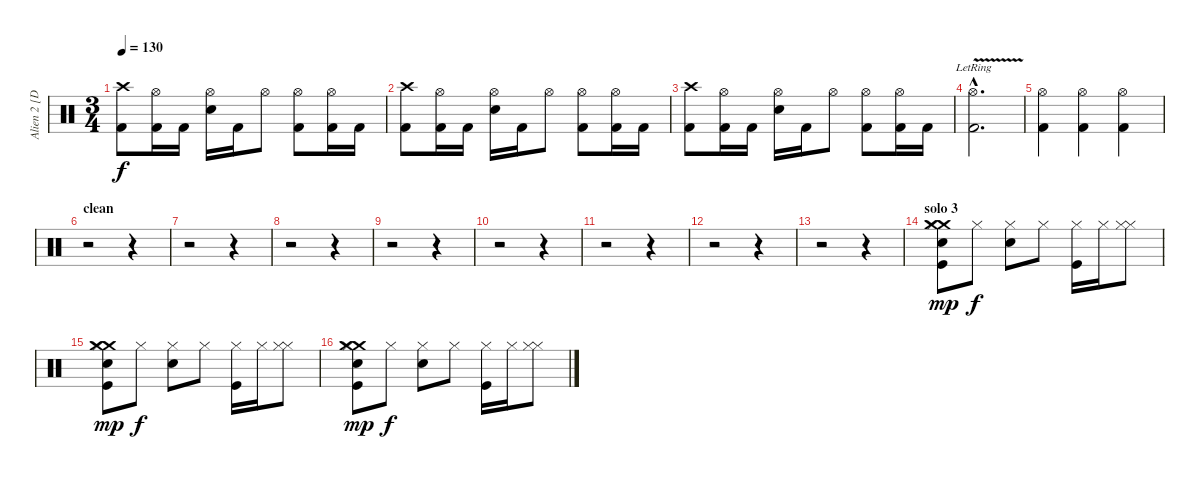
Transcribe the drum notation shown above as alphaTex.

\track ("Alien 2 [Drums]" "Alien 2 [D") {instrument percussion}
\staff {score}
\articulation defaults
\ts (3 4)
\tempo 130
\clef neutral
\ks c
("Crash high (hit)" "Kick (hit) 2").8{dy f} ("Hi-Hat (open)" "Kick (hit) 2").16 "Kick (hit) 2".16 ("Hi-Hat (open)" "Electric Snare (hit)").16 "Kick (hit) 2".16 "Hi-Hat (open)".8 ("Hi-Hat (open)" "Kick (hit) 2").8 ("Hi-Hat (open)" "Kick (hit) 2").16 "Kick (hit) 2".16 |
("Crash high (hit)" "Kick (hit) 2").8 ("Hi-Hat (open)" "Kick (hit) 2").16 "Kick (hit) 2".16 ("Hi-Hat (open)" "Electric Snare (hit)").16 "Kick (hit) 2".16 "Hi-Hat (open)".8 ("Hi-Hat (open)" "Kick (hit) 2").8 ("Hi-Hat (open)" "Kick (hit) 2").16 "Kick (hit) 2".16 |
("Crash high (hit)" "Kick (hit) 2").8 ("Hi-Hat (open)" "Kick (hit) 2").16 "Kick (hit) 2".16 ("Hi-Hat (open)" "Electric Snare (hit)").16 "Kick (hit) 2".16 "Hi-Hat (open)".8 ("Hi-Hat (open)" "Kick (hit) 2").8 ("Hi-Hat (open)" "Kick (hit) 2").16 "Kick (hit) 2".16 |
("Hi-Hat (open)"{v hac lr} "Kick (hit) 2"{hac}).2{d} |
("Hi-Hat (open)" "Kick (hit) 2").4 ("Hi-Hat (open)" "Kick (hit) 2").4 ("Hi-Hat (open)" "Kick (hit) 2").4 |
\section ("" "clean")
r.2 r.4 |
r.2 r.4 |
r.2 r.4 |
r.2 r.4 |
r.2 r.4 |
r.2 r.4 |
r.2 r.4 |
r.2 r.4 |
\section ("" "solo 3")
("Kick (hit)" "Crash medium (hit)" "Electric Snare (hit)" "Crash medium (hit)" "Hi-Hat (closed)").8{dy mp} "Hi-Hat (closed)".8{dy f} ("Snare (hit) 2" "Hi-Hat (closed)").8 "Hi-Hat (closed)".8 ("Kick (hit)" "Hi-Hat (closed)").16 "Hi-Hat (closed)".16 ("Hi-Hat (closed)" "Hi-Hat (closed)").8 |
("Kick (hit)" "Crash medium (hit)" "Electric Snare (hit)" "Crash medium (hit)" "Hi-Hat (closed)").8{dy mp} "Hi-Hat (closed)".8{dy f} ("Snare (hit) 2" "Hi-Hat (closed)").8 "Hi-Hat (closed)".8 ("Kick (hit)" "Hi-Hat (closed)").16 "Hi-Hat (closed)".16 ("Hi-Hat (closed)" "Hi-Hat (closed)").8 |
("Kick (hit)" "Crash medium (hit)" "Electric Snare (hit)" "Crash medium (hit)" "Hi-Hat (closed)").8{dy mp} "Hi-Hat (closed)".8{dy f} ("Snare (hit) 2" "Hi-Hat (closed)").8 "Hi-Hat (closed)".8 ("Kick (hit)" "Hi-Hat (closed)").16 "Hi-Hat (closed)".16 ("Hi-Hat (closed)" "Hi-Hat (closed)").8
